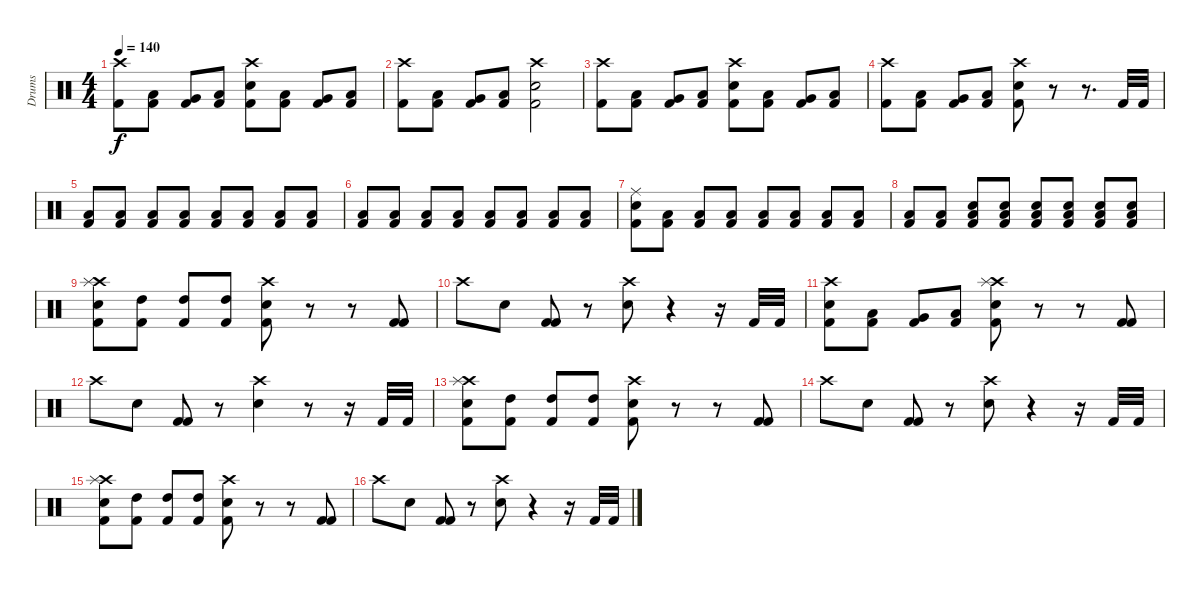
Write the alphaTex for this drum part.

\track ("Drums" "Drums") {instrument percussion}
\staff {score}
\articulation defaults
\ts (4 4)
\tempo 140
\clef neutral
\ks c
("Crash high (hit)" "Kick (hit) 2").8{dy f} ("Low Tom (hit)" "Kick (hit) 2").8 ("Very Low Tom (hit)" "Kick (hit) 2").8 ("Low Floor Tom (hit)" "Kick (hit) 2").8 ("Crash high (hit)" "Electric Snare (hit)" "Kick (hit) 2").8 ("Low Tom (hit)" "Kick (hit) 2").8 ("Very Low Tom (hit)" "Kick (hit) 2").8 ("Low Floor Tom (hit)" "Kick (hit) 2").8 |
("Crash high (hit)" "Kick (hit) 2").8 ("Low Tom (hit)" "Kick (hit) 2").8 ("Very Low Tom (hit)" "Kick (hit) 2").8 ("Low Floor Tom (hit)" "Kick (hit) 2").8 ("Crash high (hit)" "Electric Snare (hit)" "Kick (hit) 2").2 |
("Crash high (hit)" "Kick (hit) 2").8 ("Low Tom (hit)" "Kick (hit) 2").8 ("Very Low Tom (hit)" "Kick (hit) 2").8 ("Low Floor Tom (hit)" "Kick (hit) 2").8 ("Crash high (hit)" "Electric Snare (hit)" "Kick (hit) 2").8 ("Low Tom (hit)" "Kick (hit) 2").8 ("Very Low Tom (hit)" "Kick (hit) 2").8 ("Low Floor Tom (hit)" "Kick (hit) 2").8 |
("Crash high (hit)" "Kick (hit) 2").8 ("Low Tom (hit)" "Kick (hit) 2").8 ("Very Low Tom (hit)" "Kick (hit) 2").8 ("Low Floor Tom (hit)" "Kick (hit) 2").8 ("Crash high (hit)" "Electric Snare (hit)" "Kick (hit) 2").8 r.8 r.8{d} "Kick (hit) 2".32 "Kick (hit) 2".32 |
("Low Floor Tom (hit)" "Kick (hit) 2").8 ("Low Floor Tom (hit)" "Kick (hit) 2").8 ("Low Floor Tom (hit)" "Kick (hit) 2").8 ("Low Floor Tom (hit)" "Kick (hit) 2").8 ("Low Floor Tom (hit)" "Kick (hit) 2").8 ("Low Floor Tom (hit)" "Kick (hit) 2").8 ("Low Floor Tom (hit)" "Kick (hit) 2").8 ("Low Floor Tom (hit)" "Kick (hit) 2").8 |
("Low Floor Tom (hit)" "Kick (hit) 2").8 ("Low Floor Tom (hit)" "Kick (hit) 2").8 ("Low Floor Tom (hit)" "Kick (hit) 2").8 ("Low Floor Tom (hit)" "Kick (hit) 2").8 ("Low Floor Tom (hit)" "Kick (hit) 2").8 ("Low Floor Tom (hit)" "Kick (hit) 2").8 ("Low Floor Tom (hit)" "Kick (hit) 2").8 ("Low Floor Tom (hit)" "Kick (hit) 2").8 |
("Ride (middle)" "Electric Snare (hit)" "Kick (hit) 2").8 ("Low Floor Tom (hit)" "Kick (hit) 2").8 ("Low Floor Tom (hit)" "Kick (hit) 2").8 ("Low Floor Tom (hit)" "Kick (hit) 2").8 ("Low Floor Tom (hit)" "Kick (hit) 2").8 ("Low Floor Tom (hit)" "Kick (hit) 2").8 ("Low Floor Tom (hit)" "Kick (hit) 2").8 ("Low Floor Tom (hit)" "Kick (hit) 2").8 |
("Low Floor Tom (hit)" "Kick (hit) 2").8 ("Low Floor Tom (hit)" "Kick (hit) 2").8 ("Electric Snare (hit)" "Low Floor Tom (hit)" "Kick (hit) 2").8 ("Electric Snare (hit)" "Low Floor Tom (hit)" "Kick (hit) 2").8 ("Electric Snare (hit)" "Low Floor Tom (hit)" "Kick (hit) 2").8 ("Electric Snare (hit)" "Low Floor Tom (hit)" "Kick (hit) 2").8 ("Electric Snare (hit)" "Low Floor Tom (hit)" "Kick (hit) 2").8 ("Electric Snare (hit)" "Low Floor Tom (hit)" "Kick (hit) 2").8 |
("Crash high (hit)" "Splash (hit)" "Electric Snare (hit)" "Kick (hit) 2").8 ("High Tom (hit)" "Kick (hit) 2").8 ("High Tom (hit)" "Kick (hit) 2").8 ("High Tom (hit)" "Kick (hit) 2").8 ("Crash high (hit)" "Electric Snare (hit)" "Kick (hit) 2").8 r.8 r.8 ("Kick (hit) 2" "Kick (hit) 2").8 |
"Crash high (hit)".8 "Electric Snare (hit)".8 ("Kick (hit) 2" "Kick (hit) 2").8 r.8 ("Crash high (hit)" "Electric Snare (hit)").8 r.4 r.16 "Kick (hit) 2".32 "Kick (hit) 2".32 |
("Crash high (hit)" "Electric Snare (hit)" "Kick (hit) 2").8 ("Low Tom (hit)" "Kick (hit) 2").8 ("Very Low Tom (hit)" "Kick (hit) 2").8 ("Low Floor Tom (hit)" "Kick (hit) 2").8 ("Crash high (hit)" "Splash (hit)" "Electric Snare (hit)" "Kick (hit) 2").8 r.8 r.8 ("Kick (hit) 2" "Kick (hit) 2").8 |
"Crash high (hit)".8 "Electric Snare (hit)".8 ("Kick (hit) 2" "Kick (hit) 2").8 r.8 ("Crash high (hit)" "Electric Snare (hit)").4 r.8 r.16 "Kick (hit) 2".32 "Kick (hit) 2".32 |
("Crash high (hit)" "Splash (hit)" "Electric Snare (hit)" "Kick (hit) 2").8 ("High Tom (hit)" "Kick (hit) 2").8 ("High Tom (hit)" "Kick (hit) 2").8 ("High Tom (hit)" "Kick (hit) 2").8 ("Crash high (hit)" "Electric Snare (hit)" "Kick (hit) 2").8 r.8 r.8 ("Kick (hit) 2" "Kick (hit) 2").8 |
"Crash high (hit)".8 "Electric Snare (hit)".8 ("Kick (hit) 2" "Kick (hit) 2").8 r.8 ("Crash high (hit)" "Electric Snare (hit)").8 r.4 r.16 "Kick (hit) 2".32 "Kick (hit) 2".32 |
("Crash high (hit)" "Splash (hit)" "Electric Snare (hit)" "Kick (hit) 2").8 ("High Tom (hit)" "Kick (hit) 2").8 ("High Tom (hit)" "Kick (hit) 2").8 ("High Tom (hit)" "Kick (hit) 2").8 ("Crash high (hit)" "Electric Snare (hit)" "Kick (hit) 2").8 r.8 r.8 ("Kick (hit) 2" "Kick (hit) 2").8 |
"Crash high (hit)".8 "Electric Snare (hit)".8 ("Kick (hit) 2" "Kick (hit) 2").8 r.8 ("Crash high (hit)" "Electric Snare (hit)").8 r.4 r.16 "Kick (hit) 2".32 "Kick (hit) 2".32
